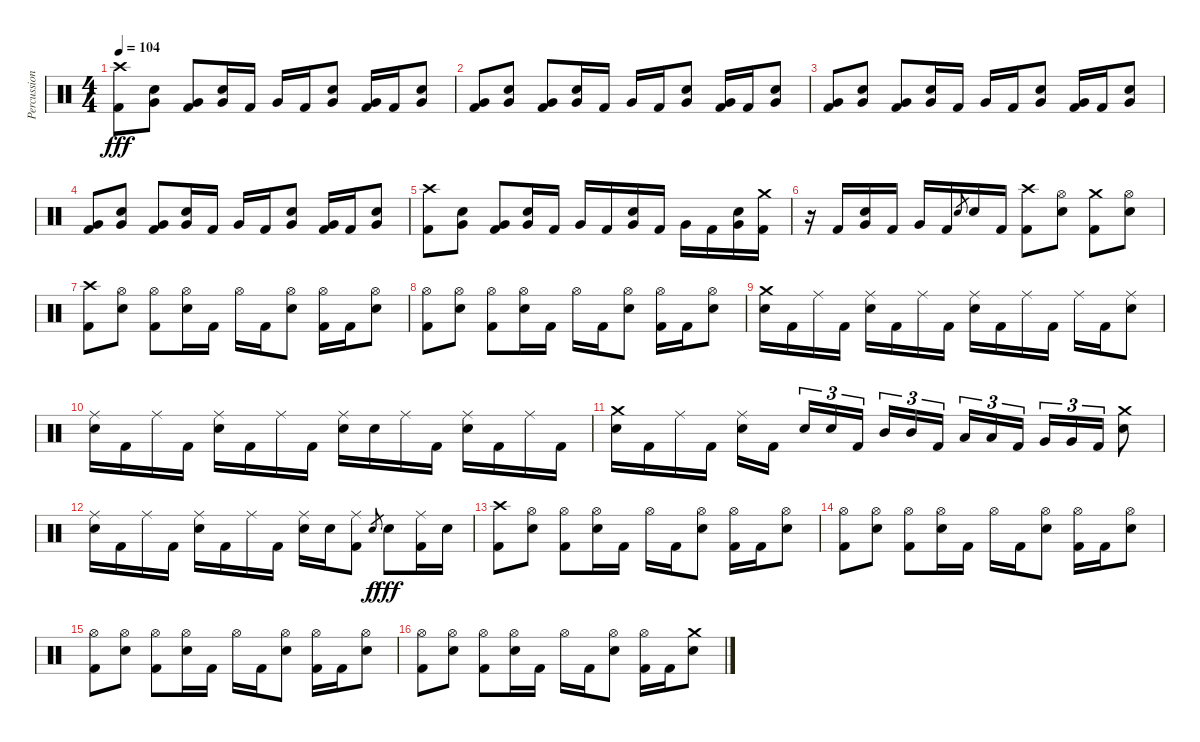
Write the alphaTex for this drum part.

\track ("Percussion" "Percussion") {instrument percussion}
\staff {score}
\articulation defaults
\ts (4 4)
\tempo 104
\clef neutral
\ks c
("Crash high (hit)" "Kick (hit) 2").8{dy fff} ("Very Low Tom (hit)" "Electric Snare (hit)").8 ("Very Low Tom (hit)" "Kick (hit) 2").8 ("Very Low Tom (hit)" "Electric Snare (hit)").16 "Kick (hit) 2".16 "Very Low Tom (hit)".16 "Kick (hit) 2".16 ("Very Low Tom (hit)" "Electric Snare (hit)").8 ("Very Low Tom (hit)" "Kick (hit) 2").16 "Kick (hit) 2".16 ("Very Low Tom (hit)" "Electric Snare (hit)").8 |
("Very Low Tom (hit)" "Kick (hit) 2").8 ("Very Low Tom (hit)" "Electric Snare (hit)").8 ("Very Low Tom (hit)" "Kick (hit) 2").8 ("Very Low Tom (hit)" "Electric Snare (hit)").16 "Kick (hit) 2".16 "Very Low Tom (hit)".16 "Kick (hit) 2".16 ("Very Low Tom (hit)" "Electric Snare (hit)").8 ("Very Low Tom (hit)" "Kick (hit) 2").16 "Kick (hit) 2".16 ("Very Low Tom (hit)" "Electric Snare (hit)").8 |
("Very Low Tom (hit)" "Kick (hit) 2").8 ("Very Low Tom (hit)" "Electric Snare (hit)").8 ("Very Low Tom (hit)" "Kick (hit) 2").8 ("Very Low Tom (hit)" "Electric Snare (hit)").16 "Kick (hit) 2".16 "Very Low Tom (hit)".16 "Kick (hit) 2".16 ("Very Low Tom (hit)" "Electric Snare (hit)").8 ("Very Low Tom (hit)" "Kick (hit) 2").16 "Kick (hit) 2".16 ("Very Low Tom (hit)" "Electric Snare (hit)").8 |
("Very Low Tom (hit)" "Kick (hit) 2").8 ("Very Low Tom (hit)" "Electric Snare (hit)").8 ("Very Low Tom (hit)" "Kick (hit) 2").8 ("Very Low Tom (hit)" "Electric Snare (hit)").16 "Kick (hit) 2".16 "Very Low Tom (hit)".16 "Kick (hit) 2".16 ("Very Low Tom (hit)" "Electric Snare (hit)").8 ("Very Low Tom (hit)" "Kick (hit) 2").16 "Kick (hit) 2".16 ("Very Low Tom (hit)" "Electric Snare (hit)").8 |
("Crash high (hit)" "Kick (hit) 2").8 ("Very Low Tom (hit)" "Electric Snare (hit)").8 ("Very Low Tom (hit)" "Kick (hit) 2").8 ("Very Low Tom (hit)" "Electric Snare (hit)").16 "Kick (hit) 2".16 "Very Low Tom (hit)".16 "Kick (hit) 2".16 ("Very Low Tom (hit)" "Electric Snare (hit)").16 "Kick (hit) 2".16 "Very Low Tom (hit)".16 "Kick (hit) 2".16 ("Very Low Tom (hit)" "Electric Snare (hit)").16 ("Crash medium (hit)" "Kick (hit) 2").16 |
r.16 "Kick (hit) 2".16 ("Very Low Tom (hit)" "Electric Snare (hit)").16 "Kick (hit) 2".16 "Very Low Tom (hit)".16 "Kick (hit) 2".16 "Electric Snare (hit)".8{gr} "Electric Snare (hit)".16 "Kick (hit) 2".16 ("Crash high (hit)" "Kick (hit) 2").8 ("Hi-Hat (open)" "Electric Snare (hit)").8 ("Crash medium (hit)" "Kick (hit) 2").8 ("Hi-Hat (open)" "Electric Snare (hit)").8 |
("Crash high (hit)" "Kick (hit) 2").8 ("Hi-Hat (open)" "Electric Snare (hit)").8 ("Hi-Hat (open)" "Kick (hit) 2").8 ("Hi-Hat (open)" "Electric Snare (hit)").16 "Kick (hit) 2".16 "Hi-Hat (open)".16 "Kick (hit) 2".16 ("Hi-Hat (open)" "Electric Snare (hit)").8 ("Hi-Hat (open)" "Kick (hit) 2").16 "Kick (hit) 2".16 ("Hi-Hat (open)" "Electric Snare (hit)").8 |
("Hi-Hat (open)" "Kick (hit) 2").8 ("Hi-Hat (open)" "Electric Snare (hit)").8 ("Hi-Hat (open)" "Kick (hit) 2").8 ("Hi-Hat (open)" "Electric Snare (hit)").16 "Kick (hit) 2".16 "Hi-Hat (open)".16 "Kick (hit) 2".16 ("Hi-Hat (open)" "Electric Snare (hit)").8 ("Hi-Hat (open)" "Kick (hit) 2").16 "Kick (hit) 2".16 ("Hi-Hat (open)" "Electric Snare (hit)").8 |
("Crash medium (hit)" "Electric Snare (hit)").16 "Kick (hit) 2".16 "Ride (middle)".16 "Kick (hit) 2".16 ("Ride (middle)" "Electric Snare (hit)").16 "Kick (hit) 2".16 "Ride (middle)".16 "Kick (hit) 2".16 ("Ride (middle)" "Electric Snare (hit)").16 "Kick (hit) 2".16 "Ride (middle)".16 "Kick (hit) 2".16 "Ride (middle)".16 "Kick (hit) 2".16 ("Ride (middle)" "Electric Snare (hit)").8 |
("Ride (middle)" "Electric Snare (hit)").16 "Kick (hit) 2".16 "Ride (middle)".16 "Kick (hit) 2".16 ("Ride (middle)" "Electric Snare (hit)").16 "Kick (hit) 2".16 "Ride (middle)".16 "Kick (hit) 2".16 ("Ride (middle)" "Electric Snare (hit)").16 "Electric Snare (hit)".16 "Ride (middle)".16 "Kick (hit) 2".16 ("Ride (middle)" "Electric Snare (hit)").16 "Kick (hit) 2".16 "Ride (middle)".16 "Kick (hit) 2".16 |
("Crash medium (hit)" "Electric Snare (hit)").16 "Kick (hit) 2".16 "Ride (middle)".16 "Kick (hit) 2".16 ("Ride (middle)" "Electric Snare (hit)").16 "Kick (hit) 2".16{beam splitsecondary} "Electric Snare (hit)".16{tu (3 2)} "Electric Snare (hit)".16{tu (3 2)} "Kick (hit) 2".16{tu (3 2)} "Mid Tom (hit)".16{tu (3 2)} "Mid Tom (hit)".16{tu (3 2)} "Kick (hit) 2".16{tu (3 2) beam splitsecondary} "Low Tom (hit)".16{tu (3 2)} "Low Tom (hit)".16{tu (3 2)} "Kick (hit) 2".16{tu (3 2)} "Very Low Tom (hit)".16{tu (3 2)} "Very Low Tom (hit)".16{tu (3 2)} "Kick (hit) 2".16{tu (3 2)} ("Crash medium (hit)" "Electric Snare (hit)").8 |
("Ride (middle)" "Electric Snare (hit)").16 "Kick (hit) 2".16 "Ride (middle)".16 "Kick (hit) 2".16 ("Ride (middle)" "Electric Snare (hit)").16 "Kick (hit) 2".16 "Ride (middle)".16 "Kick (hit) 2".16 ("Ride (middle)" "Electric Snare (hit)").16 "Electric Snare (hit)".16 ("Ride (middle)" "Kick (hit) 2").8 "Electric Snare (hit)".8{gr dy f} "Electric Snare (hit)".8{dy fff} ("Ride (middle)" "Kick (hit) 2").16 "Electric Snare (hit)".16 |
("Crash high (hit)" "Kick (hit) 2").8 ("Hi-Hat (open)" "Electric Snare (hit)").8 ("Hi-Hat (open)" "Kick (hit) 2").8 ("Hi-Hat (open)" "Electric Snare (hit)").16 "Kick (hit) 2".16 "Hi-Hat (open)".16 "Kick (hit) 2".16 ("Hi-Hat (open)" "Electric Snare (hit)").8 ("Hi-Hat (open)" "Kick (hit) 2").16 "Kick (hit) 2".16 ("Hi-Hat (open)" "Electric Snare (hit)").8 |
("Hi-Hat (open)" "Kick (hit) 2").8 ("Hi-Hat (open)" "Electric Snare (hit)").8 ("Hi-Hat (open)" "Kick (hit) 2").8 ("Hi-Hat (open)" "Electric Snare (hit)").16 "Kick (hit) 2".16 "Hi-Hat (open)".16 "Kick (hit) 2".16 ("Hi-Hat (open)" "Electric Snare (hit)").8 ("Hi-Hat (open)" "Kick (hit) 2").16 "Kick (hit) 2".16 ("Hi-Hat (open)" "Electric Snare (hit)").8 |
("Hi-Hat (open)" "Kick (hit) 2").8 ("Hi-Hat (open)" "Electric Snare (hit)").8 ("Hi-Hat (open)" "Kick (hit) 2").8 ("Hi-Hat (open)" "Electric Snare (hit)").16 "Kick (hit) 2".16 "Hi-Hat (open)".16 "Kick (hit) 2".16 ("Hi-Hat (open)" "Electric Snare (hit)").8 ("Hi-Hat (open)" "Kick (hit) 2").16 "Kick (hit) 2".16 ("Hi-Hat (open)" "Electric Snare (hit)").8 |
("Hi-Hat (open)" "Kick (hit) 2").8 ("Hi-Hat (open)" "Electric Snare (hit)").8 ("Hi-Hat (open)" "Kick (hit) 2").8 ("Hi-Hat (open)" "Electric Snare (hit)").16 "Kick (hit) 2".16 "Hi-Hat (open)".16 "Kick (hit) 2".16 ("Hi-Hat (open)" "Electric Snare (hit)").8 ("Hi-Hat (open)" "Kick (hit) 2").16 "Kick (hit) 2".16 ("Crash medium (hit)" "Electric Snare (hit)").8
